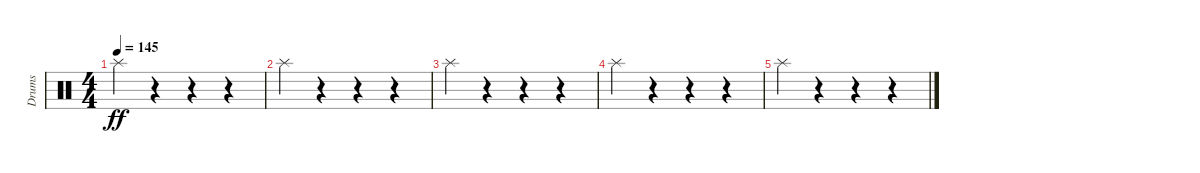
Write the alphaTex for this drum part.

\track ("Drums" "Drums") {instrument percussion}
\staff {score}
\articulation defaults
\ts (4 4)
\tempo 145
\clef neutral
\ks c "Splash (hit)".4{dy ff}
r.4 r.4 r.4 |
"Splash (hit)".4 r.4 r.4 r.4 |
"Splash (hit)".4 r.4 r.4 r.4 |
"Splash (hit)".4 r.4 r.4 r.4 |
"Splash (hit)".4 r.4 r.4 r.4
